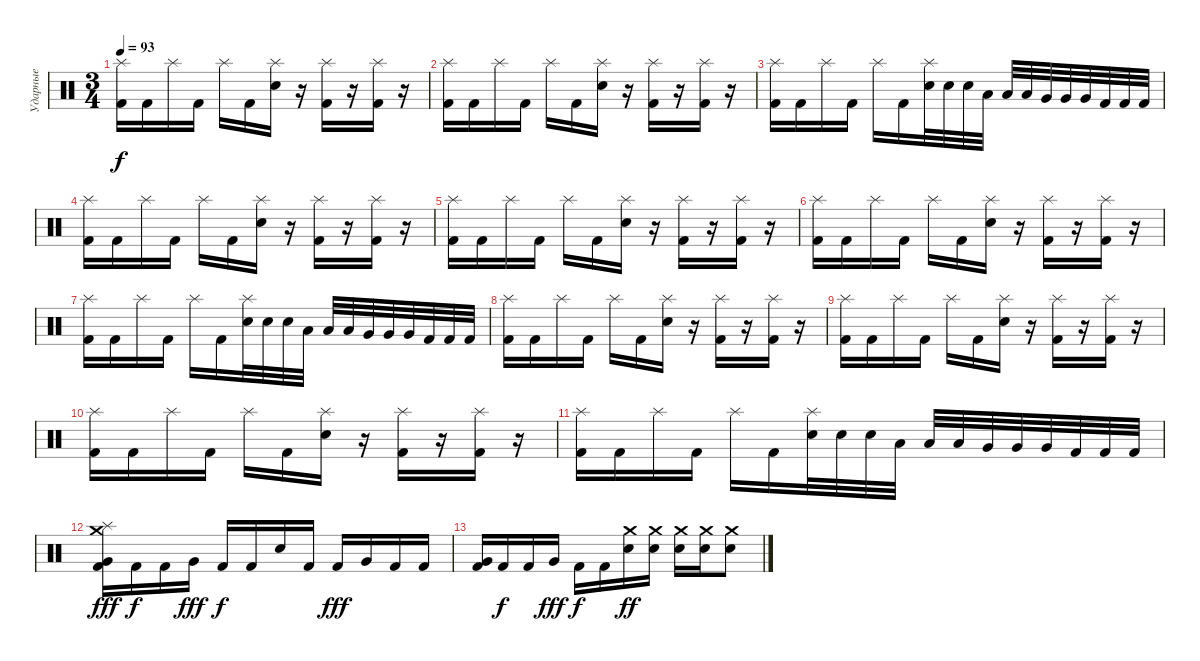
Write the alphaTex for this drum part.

\track ("Ударные" "Ударные") {instrument percussion}
\staff {score}
\articulation defaults
\ts (3 4)
\tempo 93
\clef neutral
\ks c
("Splash (hit)" "Kick (hit) 2").16{dy f} "Kick (hit) 2".16 "Splash (hit)".16 "Kick (hit) 2".16 "Splash (hit)".16 "Kick (hit) 2".16 ("Splash (hit)" "Electric Snare (hit)").16 r.16 ("Splash (hit)" "Kick (hit) 2").16 r.16 ("Splash (hit)" "Kick (hit) 2").16 r.16 |
("Splash (hit)" "Kick (hit) 2").16 "Kick (hit) 2".16 "Splash (hit)".16 "Kick (hit) 2".16 "Splash (hit)".16 "Kick (hit) 2".16 ("Splash (hit)" "Electric Snare (hit)").16 r.16 ("Splash (hit)" "Kick (hit) 2").16 r.16 ("Splash (hit)" "Kick (hit) 2").16 r.16 |
("Splash (hit)" "Kick (hit) 2").16 "Kick (hit) 2".16 "Splash (hit)".16 "Kick (hit) 2".16 "Splash (hit)".16 "Kick (hit) 2".16 ("Splash (hit)" "Electric Snare (hit)").32 "Electric Snare (hit)".32 "Electric Snare (hit)".32 "Low Tom (hit)".32 "Low Tom (hit)".32 "Low Tom (hit)".32 "Very Low Tom (hit)".32 "Very Low Tom (hit)".32 "Very Low Tom (hit)".32 "Kick (hit) 2".32 "Kick (hit) 2".32 "Kick (hit) 2".32 |
("Splash (hit)" "Kick (hit) 2").16 "Kick (hit) 2".16 "Splash (hit)".16 "Kick (hit) 2".16 "Splash (hit)".16 "Kick (hit) 2".16 ("Splash (hit)" "Electric Snare (hit)").16 r.16 ("Splash (hit)" "Kick (hit) 2").16 r.16 ("Splash (hit)" "Kick (hit) 2").16 r.16 |
("Splash (hit)" "Kick (hit) 2").16 "Kick (hit) 2".16 "Splash (hit)".16 "Kick (hit) 2".16 "Splash (hit)".16 "Kick (hit) 2".16 ("Splash (hit)" "Electric Snare (hit)").16 r.16 ("Splash (hit)" "Kick (hit) 2").16 r.16 ("Splash (hit)" "Kick (hit) 2").16 r.16 |
("Splash (hit)" "Kick (hit) 2").16 "Kick (hit) 2".16 "Splash (hit)".16 "Kick (hit) 2".16 "Splash (hit)".16 "Kick (hit) 2".16 ("Splash (hit)" "Electric Snare (hit)").16 r.16 ("Splash (hit)" "Kick (hit) 2").16 r.16 ("Splash (hit)" "Kick (hit) 2").16 r.16 |
("Splash (hit)" "Kick (hit) 2").16 "Kick (hit) 2".16 "Splash (hit)".16 "Kick (hit) 2".16 "Splash (hit)".16 "Kick (hit) 2".16 ("Splash (hit)" "Electric Snare (hit)").32 "Electric Snare (hit)".32 "Electric Snare (hit)".32 "Low Tom (hit)".32 "Low Tom (hit)".32 "Low Tom (hit)".32 "Very Low Tom (hit)".32 "Very Low Tom (hit)".32 "Very Low Tom (hit)".32 "Kick (hit) 2".32 "Kick (hit) 2".32 "Kick (hit) 2".32 |
("Splash (hit)" "Kick (hit) 2").16 "Kick (hit) 2".16 "Splash (hit)".16 "Kick (hit) 2".16 "Splash (hit)".16 "Kick (hit) 2".16 ("Splash (hit)" "Electric Snare (hit)").16 r.16 ("Splash (hit)" "Kick (hit) 2").16 r.16 ("Splash (hit)" "Kick (hit) 2").16 r.16 |
("Splash (hit)" "Kick (hit) 2").16 "Kick (hit) 2".16 "Splash (hit)".16 "Kick (hit) 2".16 "Splash (hit)".16 "Kick (hit) 2".16 ("Splash (hit)" "Electric Snare (hit)").16 r.16 ("Splash (hit)" "Kick (hit) 2").16 r.16 ("Splash (hit)" "Kick (hit) 2").16 r.16 |
("Splash (hit)" "Kick (hit) 2").16 "Kick (hit) 2".16 "Splash (hit)".16 "Kick (hit) 2".16 "Splash (hit)".16 "Kick (hit) 2".16 ("Splash (hit)" "Electric Snare (hit)").16 r.16 ("Splash (hit)" "Kick (hit) 2").16 r.16 ("Splash (hit)" "Kick (hit) 2").16 r.16 |
("Splash (hit)" "Kick (hit) 2").16 "Kick (hit) 2".16 "Splash (hit)".16 "Kick (hit) 2".16 "Splash (hit)".16 "Kick (hit) 2".16 ("Splash (hit)" "Electric Snare (hit)").32 "Electric Snare (hit)".32 "Electric Snare (hit)".32 "Low Tom (hit)".32 "Low Tom (hit)".32 "Low Tom (hit)".32 "Very Low Tom (hit)".32 "Very Low Tom (hit)".32 "Very Low Tom (hit)".32 "Kick (hit) 2".32 "Kick (hit) 2".32 "Kick (hit) 2".32 |
("Splash (hit)" "Crash medium (hit)" "Very Low Tom (hit)" "Kick (hit) 2").16{dy fff} "Kick (hit) 2".16{dy f} "Kick (hit) 2".16 "Very Low Tom (hit)".16{dy fff} "Kick (hit) 2".16{dy f} "Kick (hit) 2".16 "Electric Snare (hit)".16 "Kick (hit) 2".16 "Kick (hit) 2".16{dy fff} "Very Low Tom (hit)".16 "Kick (hit) 2".16 "Kick (hit) 2".16 |
("Very Low Tom (hit)" "Kick (hit) 2").16 "Kick (hit) 2".16{dy f} "Kick (hit) 2".16 "Very Low Tom (hit)".16{dy fff} "Kick (hit) 2".16{dy f} "Kick (hit) 2".16 ("Crash medium (hit)" "Electric Snare (hit)").16{dy ff} ("Crash medium (hit)" "Electric Snare (hit)").16 ("Crash medium (hit)" "Electric Snare (hit)").16 ("Crash medium (hit)" "Electric Snare (hit)").16 ("Crash medium (hit)" "Electric Snare (hit)").8
